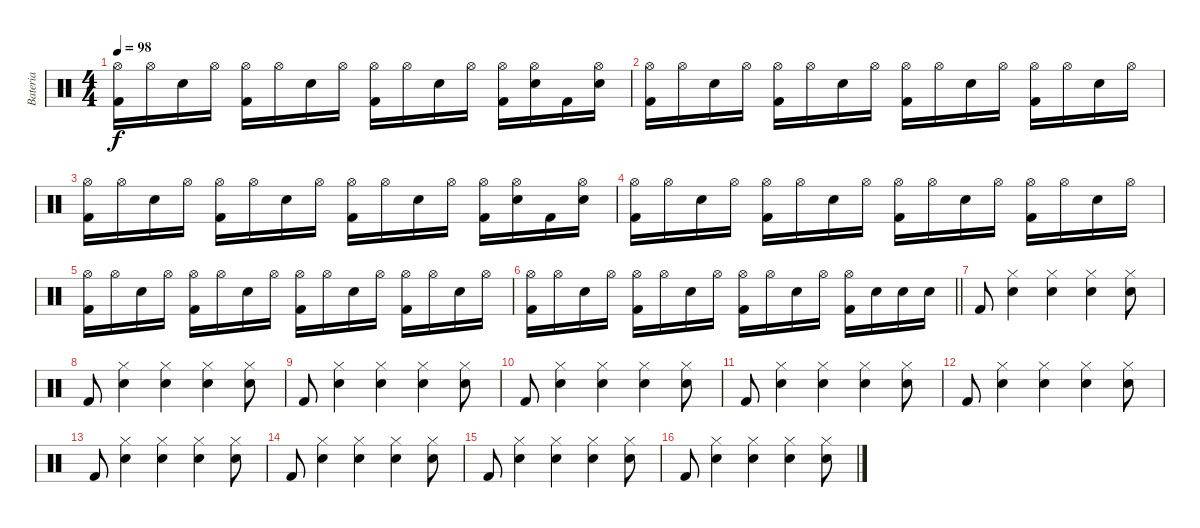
\track ("Bateria" "Bateria") {instrument percussion}
\staff {score}
\articulation defaults
\ts (4 4)
\tempo 98
\clef neutral
\ks c
("Hi-Hat (open)" "Kick (hit) 2").16{dy f} "Hi-Hat (open)".16 "Snare (hit) 2".16 "Hi-Hat (open)".16 ("Hi-Hat (open)" "Kick (hit) 2").16 "Hi-Hat (open)".16 "Snare (hit) 2".16 "Hi-Hat (open)".16 ("Hi-Hat (open)" "Kick (hit) 2").16 "Hi-Hat (open)".16 "Snare (hit) 2".16 "Hi-Hat (open)".16 ("Hi-Hat (open)" "Kick (hit) 2").16 ("Hi-Hat (open)" "Snare (hit) 2").16 "Kick (hit) 2".16 ("Hi-Hat (open)" "Snare (hit) 2").16 |
("Hi-Hat (open)" "Kick (hit) 2").16 "Hi-Hat (open)".16 "Snare (hit) 2".16 "Hi-Hat (open)".16 ("Hi-Hat (open)" "Kick (hit) 2").16 "Hi-Hat (open)".16 "Snare (hit) 2".16 "Hi-Hat (open)".16 ("Hi-Hat (open)" "Kick (hit) 2").16 "Hi-Hat (open)".16 "Snare (hit) 2".16 "Hi-Hat (open)".16 ("Hi-Hat (open)" "Kick (hit) 2").16 "Hi-Hat (open)".16 "Snare (hit) 2".16 "Hi-Hat (open)".16 |
("Hi-Hat (open)" "Kick (hit) 2").16 "Hi-Hat (open)".16 "Snare (hit) 2".16 "Hi-Hat (open)".16 ("Hi-Hat (open)" "Kick (hit) 2").16 "Hi-Hat (open)".16 "Snare (hit) 2".16 "Hi-Hat (open)".16 ("Hi-Hat (open)" "Kick (hit) 2").16 "Hi-Hat (open)".16 "Snare (hit) 2".16 "Hi-Hat (open)".16 ("Hi-Hat (open)" "Kick (hit) 2").16 ("Hi-Hat (open)" "Snare (hit) 2").16 "Kick (hit) 2".16 ("Hi-Hat (open)" "Snare (hit) 2").16 |
("Hi-Hat (open)" "Kick (hit) 2").16 "Hi-Hat (open)".16 "Snare (hit) 2".16 "Hi-Hat (open)".16 ("Hi-Hat (open)" "Kick (hit) 2").16 "Hi-Hat (open)".16 "Snare (hit) 2".16 "Hi-Hat (open)".16 ("Hi-Hat (open)" "Kick (hit) 2").16 "Hi-Hat (open)".16 "Snare (hit) 2".16 "Hi-Hat (open)".16 ("Hi-Hat (open)" "Kick (hit) 2").16 "Hi-Hat (open)".16 "Snare (hit) 2".16 "Hi-Hat (open)".16 |
("Hi-Hat (open)" "Kick (hit) 2").16 "Hi-Hat (open)".16 "Snare (hit) 2".16 "Hi-Hat (open)".16 ("Hi-Hat (open)" "Kick (hit) 2").16 "Hi-Hat (open)".16 "Snare (hit) 2".16 "Hi-Hat (open)".16 ("Hi-Hat (open)" "Kick (hit) 2").16 "Hi-Hat (open)".16 "Snare (hit) 2".16 "Hi-Hat (open)".16 ("Hi-Hat (open)" "Kick (hit) 2").16 "Hi-Hat (open)".16 "Snare (hit) 2".16 "Hi-Hat (open)".16 |
\barLineRight lightlight
("Hi-Hat (open)" "Kick (hit) 2").16 "Hi-Hat (open)".16 "Snare (hit) 2".16 "Hi-Hat (open)".16 ("Hi-Hat (open)" "Kick (hit) 2").16 "Hi-Hat (open)".16 "Snare (hit) 2".16 "Hi-Hat (open)".16 ("Hi-Hat (open)" "Kick (hit) 2").16 "Hi-Hat (open)".16 "Snare (hit) 2".16 "Hi-Hat (open)".16 ("Hi-Hat (open)" "Kick (hit) 2").16 "Snare (hit) 2".16 "Snare (hit) 2".16 "Snare (hit) 2".16 |
"Kick (hit) 2".8 ("Hi-Hat (closed)" "Snare (hit) 2").4 ("Hi-Hat (closed)" "Snare (hit) 2").4 ("Hi-Hat (closed)" "Snare (hit) 2").4 ("Hi-Hat (closed)" "Snare (hit) 2").8 |
"Kick (hit) 2".8 ("Hi-Hat (closed)" "Snare (hit) 2").4 ("Hi-Hat (closed)" "Snare (hit) 2").4 ("Hi-Hat (closed)" "Snare (hit) 2").4 ("Hi-Hat (closed)" "Snare (hit) 2").8 |
"Kick (hit) 2".8 ("Hi-Hat (closed)" "Snare (hit) 2").4 ("Hi-Hat (closed)" "Snare (hit) 2").4 ("Hi-Hat (closed)" "Snare (hit) 2").4 ("Hi-Hat (closed)" "Snare (hit) 2").8 |
"Kick (hit) 2".8 ("Hi-Hat (closed)" "Snare (hit) 2").4 ("Hi-Hat (closed)" "Snare (hit) 2").4 ("Hi-Hat (closed)" "Snare (hit) 2").4 ("Hi-Hat (closed)" "Snare (hit) 2").8 |
"Kick (hit) 2".8 ("Hi-Hat (closed)" "Snare (hit) 2").4 ("Hi-Hat (closed)" "Snare (hit) 2").4 ("Hi-Hat (closed)" "Snare (hit) 2").4 ("Hi-Hat (closed)" "Snare (hit) 2").8 |
"Kick (hit) 2".8 ("Hi-Hat (closed)" "Snare (hit) 2").4 ("Hi-Hat (closed)" "Snare (hit) 2").4 ("Hi-Hat (closed)" "Snare (hit) 2").4 ("Hi-Hat (closed)" "Snare (hit) 2").8 |
"Kick (hit) 2".8 ("Hi-Hat (closed)" "Snare (hit) 2").4 ("Hi-Hat (closed)" "Snare (hit) 2").4 ("Hi-Hat (closed)" "Snare (hit) 2").4 ("Hi-Hat (closed)" "Snare (hit) 2").8 |
"Kick (hit) 2".8 ("Hi-Hat (closed)" "Snare (hit) 2").4 ("Hi-Hat (closed)" "Snare (hit) 2").4 ("Hi-Hat (closed)" "Snare (hit) 2").4 ("Hi-Hat (closed)" "Snare (hit) 2").8 |
"Kick (hit) 2".8 ("Hi-Hat (closed)" "Snare (hit) 2").4 ("Hi-Hat (closed)" "Snare (hit) 2").4 ("Hi-Hat (closed)" "Snare (hit) 2").4 ("Hi-Hat (closed)" "Snare (hit) 2").8 |
"Kick (hit) 2".8 ("Hi-Hat (closed)" "Snare (hit) 2").4 ("Hi-Hat (closed)" "Snare (hit) 2").4 ("Hi-Hat (closed)" "Snare (hit) 2").4 ("Hi-Hat (closed)" "Snare (hit) 2").8
